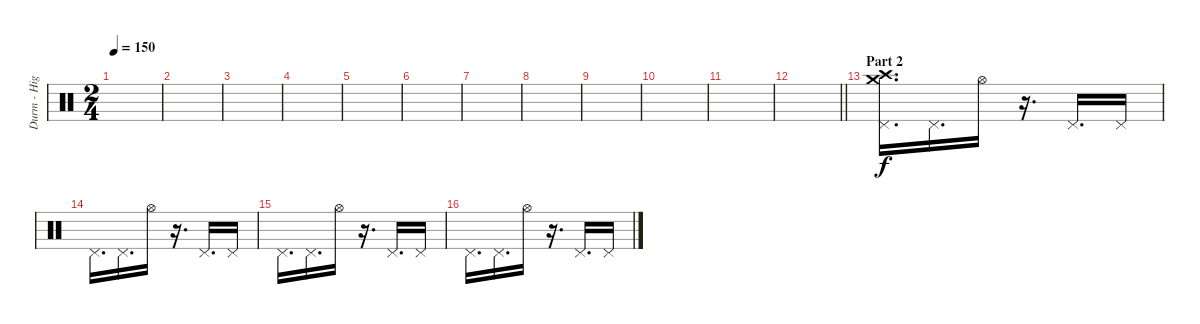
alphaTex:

\track ("Durm - High Hat" "Durm - Hig") {instrument percussion}
\staff {score}
\articulation defaults
\ts (2 4)
\tempo 150
\clef neutral
\ks c
|
|
|
|
|
|
|
|
|
|
|
\barLineRight lightlight
|
\section ("" "Part 2")
("Crash medium (hit)" "Crash high (hit)" "Pedal Hi-Hat (hit)").16{d} "Pedal Hi-Hat (hit)".16{d} "Hi-Hat (open)".16 r.16{d} "Pedal Hi-Hat (hit)".16{d} "Pedal Hi-Hat (hit)".16 |
"Pedal Hi-Hat (hit)".16{d} "Pedal Hi-Hat (hit)".16{d} "Hi-Hat (open)".16 r.16{d} "Pedal Hi-Hat (hit)".16{d} "Pedal Hi-Hat (hit)".16 |
"Pedal Hi-Hat (hit)".16{d} "Pedal Hi-Hat (hit)".16{d} "Hi-Hat (open)".16 r.16{d} "Pedal Hi-Hat (hit)".16{d} "Pedal Hi-Hat (hit)".16 |
"Pedal Hi-Hat (hit)".16{d} "Pedal Hi-Hat (hit)".16{d} "Hi-Hat (open)".16 r.16{d} "Pedal Hi-Hat (hit)".16{d} "Pedal Hi-Hat (hit)".16
